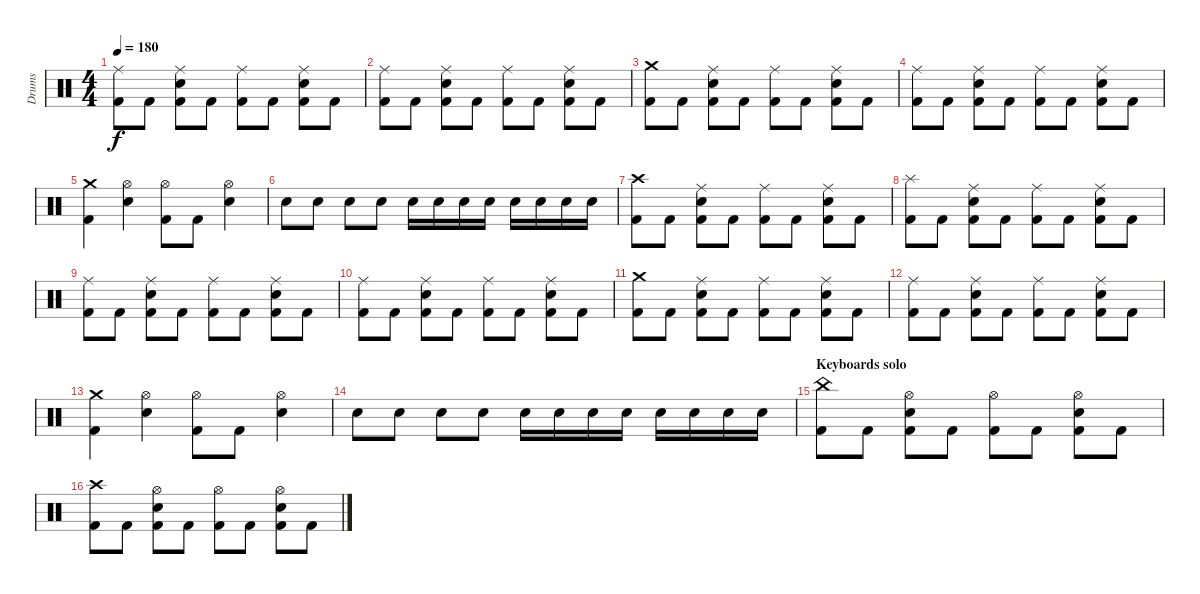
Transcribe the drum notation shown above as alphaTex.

\track ("Drums" "Drums") {instrument percussion}
\staff {score}
\articulation defaults
\ts (4 4)
\tempo 180
\clef neutral
\ks c
("Ride (middle)" "Kick (hit) 2").8{dy f} "Kick (hit) 2".8 ("Ride (middle)" "Electric Snare (hit)" "Kick (hit) 2").8 "Kick (hit) 2".8 ("Ride (middle)" "Kick (hit) 2").8 "Kick (hit) 2".8 ("Ride (middle)" "Electric Snare (hit)" "Kick (hit) 2").8 "Kick (hit) 2".8 |
("Ride (middle)" "Kick (hit) 2").8 "Kick (hit) 2".8 ("Ride (middle)" "Electric Snare (hit)" "Kick (hit) 2").8 "Kick (hit) 2".8 ("Ride (middle)" "Kick (hit) 2").8 "Kick (hit) 2".8 ("Ride (middle)" "Electric Snare (hit)" "Kick (hit) 2").8 "Kick (hit) 2".8 |
("Crash medium (hit)" "Kick (hit) 2").8 "Kick (hit) 2".8 ("Ride (middle)" "Electric Snare (hit)" "Kick (hit) 2").8 "Kick (hit) 2".8 ("Ride (middle)" "Kick (hit) 2").8 "Kick (hit) 2".8 ("Ride (middle)" "Electric Snare (hit)" "Kick (hit) 2").8 "Kick (hit) 2".8 |
("Ride (middle)" "Kick (hit) 2").8 "Kick (hit) 2".8 ("Ride (middle)" "Electric Snare (hit)" "Kick (hit) 2").8 "Kick (hit) 2".8 ("Ride (middle)" "Kick (hit) 2").8 "Kick (hit) 2".8 ("Ride (middle)" "Electric Snare (hit)" "Kick (hit) 2").8 "Kick (hit) 2".8 |
("Crash medium (hit)" "Kick (hit) 2").4 ("Hi-Hat (open)" "Electric Snare (hit)").4 ("Hi-Hat (open)" "Kick (hit) 2").8 "Kick (hit) 2".8 ("Hi-Hat (open)" "Electric Snare (hit)").4 |
"Electric Snare (hit)".8 "Electric Snare (hit)".8 "Electric Snare (hit)".8 "Electric Snare (hit)".8 "Snare (hit) 2".16 "Snare (hit) 2".16 "Snare (hit) 2".16 "Snare (hit) 2".16 "Snare (hit) 2".16 "Snare (hit) 2".16 "Snare (hit) 2".16 "Electric Snare (hit)".16 |
("Crash high (hit)" "Kick (hit) 2").8 "Kick (hit) 2".8 ("Ride (middle)" "Electric Snare (hit)" "Kick (hit) 2").8 "Kick (hit) 2".8 ("Ride (middle)" "Kick (hit) 2").8 "Kick (hit) 2".8 ("Ride (middle)" "Electric Snare (hit)" "Kick (hit) 2").8 "Kick (hit) 2".8 |
("Splash (hit)" "Kick (hit) 2").8 "Kick (hit) 2".8 ("Ride (middle)" "Electric Snare (hit)" "Kick (hit) 2").8 "Kick (hit) 2".8 ("Ride (middle)" "Kick (hit) 2").8 "Kick (hit) 2".8 ("Ride (middle)" "Electric Snare (hit)" "Kick (hit) 2").8 "Kick (hit) 2".8 |
("Ride (middle)" "Kick (hit) 2").8 "Kick (hit) 2".8 ("Ride (middle)" "Electric Snare (hit)" "Kick (hit) 2").8 "Kick (hit) 2".8 ("Ride (middle)" "Kick (hit) 2").8 "Kick (hit) 2".8 ("Ride (middle)" "Electric Snare (hit)" "Kick (hit) 2").8 "Kick (hit) 2".8 |
("Ride (middle)" "Kick (hit) 2").8 "Kick (hit) 2".8 ("Ride (middle)" "Electric Snare (hit)" "Kick (hit) 2").8 "Kick (hit) 2".8 ("Ride (middle)" "Kick (hit) 2").8 "Kick (hit) 2".8 ("Ride (middle)" "Electric Snare (hit)" "Kick (hit) 2").8 "Kick (hit) 2".8 |
("Crash medium (hit)" "Kick (hit) 2").8 "Kick (hit) 2".8 ("Ride (middle)" "Electric Snare (hit)" "Kick (hit) 2").8 "Kick (hit) 2".8 ("Ride (middle)" "Kick (hit) 2").8 "Kick (hit) 2".8 ("Ride (middle)" "Electric Snare (hit)" "Kick (hit) 2").8 "Kick (hit) 2".8 |
("Ride (middle)" "Kick (hit) 2").8 "Kick (hit) 2".8 ("Ride (middle)" "Electric Snare (hit)" "Kick (hit) 2").8 "Kick (hit) 2".8 ("Ride (middle)" "Kick (hit) 2").8 "Kick (hit) 2".8 ("Ride (middle)" "Electric Snare (hit)" "Kick (hit) 2").8 "Kick (hit) 2".8 |
("Crash medium (hit)" "Kick (hit) 2").4 ("Hi-Hat (open)" "Electric Snare (hit)").4 ("Hi-Hat (open)" "Kick (hit) 2").8 "Kick (hit) 2".8 ("Hi-Hat (open)" "Electric Snare (hit)").4 |
"Electric Snare (hit)".8 "Electric Snare (hit)".8 "Electric Snare (hit)".8 "Electric Snare (hit)".8 "Snare (hit) 2".16 "Snare (hit) 2".16 "Snare (hit) 2".16 "Snare (hit) 2".16 "Snare (hit) 2".16 "Snare (hit) 2".16 "Snare (hit) 2".16 "Electric Snare (hit)".16 |
\section ("" "Keyboards solo")
("China (hit)" "Kick (hit) 2").8 "Kick (hit) 2".8 ("Hi-Hat (open)" "Electric Snare (hit)" "Kick (hit) 2").8 "Kick (hit) 2".8 ("Hi-Hat (open)" "Kick (hit) 2").8 "Kick (hit) 2".8 ("Hi-Hat (open)" "Electric Snare (hit)" "Kick (hit) 2").8 "Kick (hit) 2".8 |
("Crash high (hit)" "Kick (hit) 2").8 "Kick (hit) 2".8 ("Hi-Hat (open)" "Electric Snare (hit)" "Kick (hit) 2").8 "Kick (hit) 2".8 ("Hi-Hat (open)" "Kick (hit) 2").8 "Kick (hit) 2".8 ("Hi-Hat (open)" "Electric Snare (hit)" "Kick (hit) 2").8 "Kick (hit) 2".8
